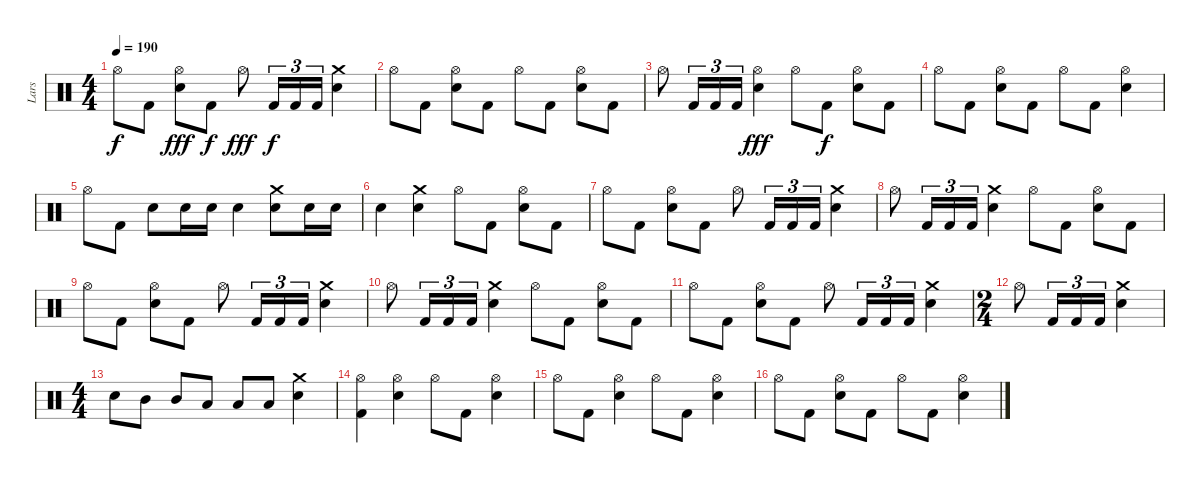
\track ("Lars" "Lars") {instrument percussion}
\staff {score}
\articulation defaults
\ts (4 4)
\tempo 190
\clef neutral
\ks c "Hi-Hat (open)".8{dy f} "Kick (hit) 2".8
("Hi-Hat (open)" "Snare (hit) 2").8{dy fff} "Kick (hit) 2".8{dy f} "Hi-Hat (open)".8{dy fff} "Kick (hit) 2".16{tu (3 2) dy f} "Kick (hit) 2".16{tu (3 2)} "Kick (hit) 2".16{tu (3 2)} ("Crash medium (hit)" "Snare (hit) 2").4 |
"Hi-Hat (open)".8 "Kick (hit) 2".8 ("Hi-Hat (open)" "Snare (hit) 2").8 "Kick (hit) 2".8 "Hi-Hat (open)".8 "Kick (hit) 2".8 ("Hi-Hat (open)" "Snare (hit) 2").8 "Kick (hit) 2".8 |
"Hi-Hat (open)".8 "Kick (hit) 2".16{tu (3 2)} "Kick (hit) 2".16{tu (3 2)} "Kick (hit) 2".16{tu (3 2)} ("Hi-Hat (open)" "Snare (hit) 2").4{dy fff} "Hi-Hat (open)".8 "Kick (hit) 2".8{dy f} ("Hi-Hat (open)" "Snare (hit) 2").8 "Kick (hit) 2".8 |
"Hi-Hat (open)".8 "Kick (hit) 2".8 ("Hi-Hat (open)" "Snare (hit) 2").8 "Kick (hit) 2".8 "Hi-Hat (open)".8 "Kick (hit) 2".8 ("Hi-Hat (open)" "Snare (hit) 2").4 |
"Hi-Hat (open)".8 "Kick (hit) 2".8 "Snare (hit) 2".8 "Snare (hit) 2".16 "Snare (hit) 2".16 "Snare (hit) 2".4 ("Crash medium (hit)" "Snare (hit) 2").8 "Snare (hit) 2".16 "Snare (hit) 2".16 |
"Snare (hit) 2".4 ("Crash medium (hit)" "Snare (hit) 2").4 "Hi-Hat (open)".8 "Kick (hit) 2".8 ("Hi-Hat (open)" "Snare (hit) 2").8 "Kick (hit) 2".8 |
"Hi-Hat (open)".8 "Kick (hit) 2".8 ("Hi-Hat (open)" "Snare (hit) 2").8 "Kick (hit) 2".8 "Hi-Hat (open)".8 "Kick (hit) 2".16{tu (3 2)} "Kick (hit) 2".16{tu (3 2)} "Kick (hit) 2".16{tu (3 2)} ("Crash medium (hit)" "Snare (hit) 2").4 |
"Hi-Hat (open)".8 "Kick (hit) 2".16{tu (3 2)} "Kick (hit) 2".16{tu (3 2)} "Kick (hit) 2".16{tu (3 2)} ("Crash medium (hit)" "Snare (hit) 2").4 "Hi-Hat (open)".8 "Kick (hit) 2".8 ("Hi-Hat (open)" "Snare (hit) 2").8 "Kick (hit) 2".8 |
"Hi-Hat (open)".8 "Kick (hit) 2".8 ("Hi-Hat (open)" "Snare (hit) 2").8 "Kick (hit) 2".8 "Hi-Hat (open)".8 "Kick (hit) 2".16{tu (3 2)} "Kick (hit) 2".16{tu (3 2)} "Kick (hit) 2".16{tu (3 2)} ("Crash medium (hit)" "Snare (hit) 2").4 |
"Hi-Hat (open)".8 "Kick (hit) 2".16{tu (3 2)} "Kick (hit) 2".16{tu (3 2)} "Kick (hit) 2".16{tu (3 2)} ("Crash medium (hit)" "Snare (hit) 2").4 "Hi-Hat (open)".8 "Kick (hit) 2".8 ("Hi-Hat (open)" "Snare (hit) 2").8 "Kick (hit) 2".8 |
"Hi-Hat (open)".8 "Kick (hit) 2".8 ("Hi-Hat (open)" "Snare (hit) 2").8 "Kick (hit) 2".8 "Hi-Hat (open)".8 "Kick (hit) 2".16{tu (3 2)} "Kick (hit) 2".16{tu (3 2)} "Kick (hit) 2".16{tu (3 2)} ("Crash medium (hit)" "Snare (hit) 2").4 |
\ts (2 4)
"Hi-Hat (open)".8 "Kick (hit) 2".16{tu (3 2)} "Kick (hit) 2".16{tu (3 2)} "Kick (hit) 2".16{tu (3 2)} ("Crash medium (hit)" "Snare (hit) 2").4 |
\ts (4 4)
"Snare (hit) 2".8 "Mid Tom (hit)".8 "Mid Tom (hit)".8 "Low Tom (hit)".8 "Low Tom (hit)".8 "Low Tom (hit)".8 ("Crash medium (hit)" "Snare (hit) 2").4 |
("Hi-Hat (open)" "Kick (hit) 2").4 ("Hi-Hat (open)" "Snare (hit) 2").4 "Hi-Hat (open)".8 "Kick (hit) 2".8 ("Hi-Hat (open)" "Snare (hit) 2").4 |
"Hi-Hat (open)".8 "Kick (hit) 2".8 ("Hi-Hat (open)" "Snare (hit) 2").4 "Hi-Hat (open)".8 "Kick (hit) 2".8 ("Hi-Hat (open)" "Snare (hit) 2").4 |
"Hi-Hat (open)".8 "Kick (hit) 2".8 ("Hi-Hat (open)" "Snare (hit) 2").8 "Kick (hit) 2".8 "Hi-Hat (open)".8 "Kick (hit) 2".8 ("Hi-Hat (open)" "Snare (hit) 2").4
